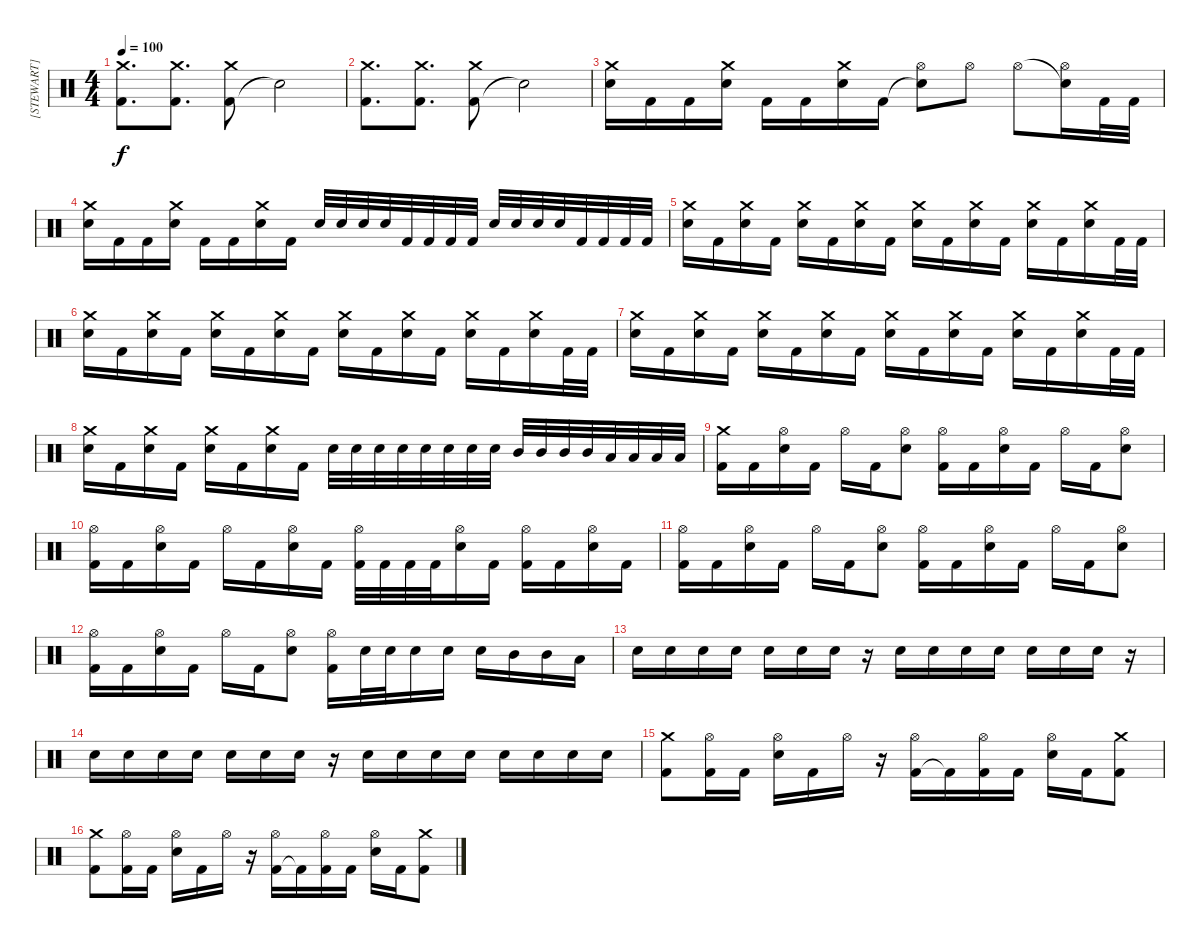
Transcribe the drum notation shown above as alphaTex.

\track ("[STEWART]" "[STEWART]") {instrument percussion}
\staff {score}
\articulation defaults
\ts (4 4)
\tempo 100
\clef neutral
\ks c
("Kick (hit) 2" "Crash medium (hit)").8{d dy f} ("Kick (hit) 2" "Crash medium (hit)").8{d} ("Kick (hit) 2" "Crash medium (hit)").8 "Snare (hit)"{t}.2 |
("Kick (hit) 2" "Crash medium (hit)").8{d} ("Kick (hit) 2" "Crash medium (hit)").8{d} ("Kick (hit) 2" "Crash medium (hit)").8 "Snare (hit)"{t}.2 |
("Electric Snare (hit)" "Crash medium (hit)").16 "Kick (hit) 2".16 "Kick (hit) 2".16 ("Electric Snare (hit)" "Crash medium (hit)").16 "Kick (hit) 2".16 "Kick (hit) 2".16 ("Electric Snare (hit)" "Crash medium (hit)").16 "Kick (hit) 2".16 ("Snare (hit)"{t} "Hi-Hat (open)").8 "Hi-Hat (open)".8 "Hi-Hat (open)".8 ("Snare (hit)"{t} "Hi-Hat (open)").16 "Kick (hit) 2".32 "Kick (hit) 2".32 |
("Electric Snare (hit)" "Crash medium (hit)").16 "Kick (hit) 2".16 "Kick (hit) 2".16 ("Electric Snare (hit)" "Crash medium (hit)").16 "Kick (hit) 2".16 "Kick (hit) 2".16 ("Electric Snare (hit)" "Crash medium (hit)").16 "Kick (hit) 2".16 "Electric Snare (hit)".32 "Electric Snare (hit)".32 "Electric Snare (hit)".32 "Electric Snare (hit)".32 "Kick (hit) 2".32 "Kick (hit) 2".32 "Kick (hit) 2".32 "Kick (hit) 2".32 "Electric Snare (hit)".32 "Electric Snare (hit)".32 "Electric Snare (hit)".32 "Electric Snare (hit)".32 "Kick (hit) 2".32 "Kick (hit) 2".32 "Kick (hit) 2".32 "Kick (hit) 2".32 |
("Electric Snare (hit)" "Crash medium (hit)").16 "Kick (hit) 2".16 ("Electric Snare (hit)" "Crash medium (hit)").16 "Kick (hit) 2".16 ("Electric Snare (hit)" "Crash medium (hit)").16 "Kick (hit) 2".16 ("Electric Snare (hit)" "Crash medium (hit)").16 "Kick (hit) 2".16 ("Electric Snare (hit)" "Crash medium (hit)").16 "Kick (hit) 2".16 ("Electric Snare (hit)" "Crash medium (hit)").16 "Kick (hit) 2".16 ("Electric Snare (hit)" "Crash medium (hit)").16 "Kick (hit) 2".16 ("Electric Snare (hit)" "Crash medium (hit)").16 "Kick (hit) 2".32 "Kick (hit) 2".32 |
("Electric Snare (hit)" "Crash medium (hit)").16 "Kick (hit) 2".16 ("Electric Snare (hit)" "Crash medium (hit)").16 "Kick (hit) 2".16 ("Electric Snare (hit)" "Crash medium (hit)").16 "Kick (hit) 2".16 ("Electric Snare (hit)" "Crash medium (hit)").16 "Kick (hit) 2".16 ("Electric Snare (hit)" "Crash medium (hit)").16 "Kick (hit) 2".16 ("Electric Snare (hit)" "Crash medium (hit)").16 "Kick (hit) 2".16 ("Electric Snare (hit)" "Crash medium (hit)").16 "Kick (hit) 2".16 ("Electric Snare (hit)" "Crash medium (hit)").16 "Kick (hit) 2".32 "Kick (hit) 2".32 |
("Electric Snare (hit)" "Crash medium (hit)").16 "Kick (hit) 2".16 ("Electric Snare (hit)" "Crash medium (hit)").16 "Kick (hit) 2".16 ("Electric Snare (hit)" "Crash medium (hit)").16 "Kick (hit) 2".16 ("Electric Snare (hit)" "Crash medium (hit)").16 "Kick (hit) 2".16 ("Electric Snare (hit)" "Crash medium (hit)").16 "Kick (hit) 2".16 ("Electric Snare (hit)" "Crash medium (hit)").16 "Kick (hit) 2".16 ("Electric Snare (hit)" "Crash medium (hit)").16 "Kick (hit) 2".16 ("Electric Snare (hit)" "Crash medium (hit)").16 "Kick (hit) 2".32 "Kick (hit) 2".32 |
("Electric Snare (hit)" "Crash medium (hit)").16 "Kick (hit) 2".16 ("Electric Snare (hit)" "Crash medium (hit)").16 "Kick (hit) 2".16 ("Electric Snare (hit)" "Crash medium (hit)").16 "Kick (hit) 2".16 ("Electric Snare (hit)" "Crash medium (hit)").16 "Kick (hit) 2".16 "Electric Snare (hit)".32 "Electric Snare (hit)".32 "Electric Snare (hit)".32 "Electric Snare (hit)".32 "Electric Snare (hit)".32 "Electric Snare (hit)".32 "Electric Snare (hit)".32 "Electric Snare (hit)".32 "Mid Tom (hit)".32 "Mid Tom (hit)".32 "Mid Tom (hit)".32 "Mid Tom (hit)".32 "Low Tom (hit)".32 "Low Tom (hit)".32 "Low Tom (hit)".32 "Low Tom (hit)".32 |
("Kick (hit) 2" "Crash medium (hit)").16 "Kick (hit) 2".16 ("Electric Snare (hit)" "Hi-Hat (open)").16 "Kick (hit) 2".16 "Hi-Hat (open)".16 "Kick (hit) 2".16 ("Electric Snare (hit)" "Hi-Hat (open)").8 ("Kick (hit) 2" "Hi-Hat (open)").16 "Kick (hit) 2".16 ("Electric Snare (hit)" "Hi-Hat (open)").16 "Kick (hit) 2".16 "Hi-Hat (open)".16 "Kick (hit) 2".16 ("Electric Snare (hit)" "Hi-Hat (open)").8 |
("Kick (hit) 2" "Hi-Hat (open)").16 "Kick (hit) 2".16 ("Electric Snare (hit)" "Hi-Hat (open)").16 "Kick (hit) 2".16 "Hi-Hat (open)".16 "Kick (hit) 2".16 ("Electric Snare (hit)" "Hi-Hat (open)").16 "Kick (hit) 2".16 ("Kick (hit) 2" "Hi-Hat (open)").32 "Kick (hit) 2".32 "Kick (hit) 2".32 "Kick (hit) 2".32 ("Electric Snare (hit)" "Hi-Hat (open)").16 "Kick (hit) 2".16 ("Kick (hit) 2" "Hi-Hat (open)").16 "Kick (hit) 2".16 ("Electric Snare (hit)" "Hi-Hat (open)").16 "Kick (hit) 2".16 |
("Kick (hit) 2" "Hi-Hat (open)").16 "Kick (hit) 2".16 ("Electric Snare (hit)" "Hi-Hat (open)").16 "Kick (hit) 2".16 "Hi-Hat (open)".16 "Kick (hit) 2".16 ("Electric Snare (hit)" "Hi-Hat (open)").8 ("Kick (hit) 2" "Hi-Hat (open)").16 "Kick (hit) 2".16 ("Electric Snare (hit)" "Hi-Hat (open)").16 "Kick (hit) 2".16 "Hi-Hat (open)".16 "Kick (hit) 2".16 ("Electric Snare (hit)" "Hi-Hat (open)").8 |
("Kick (hit) 2" "Hi-Hat (open)").16 "Kick (hit) 2".16 ("Electric Snare (hit)" "Hi-Hat (open)").16 "Kick (hit) 2".16 "Hi-Hat (open)".16 "Kick (hit) 2".16 ("Electric Snare (hit)" "Hi-Hat (open)").8 ("Kick (hit) 2" "Hi-Hat (open)").16 "Electric Snare (hit)".32 "Electric Snare (hit)".32 "Electric Snare (hit)".16 "Electric Snare (hit)".16 "Electric Snare (hit)".16 "Mid Tom (hit)".16 "Mid Tom (hit)".16 "Low Tom (hit)".16 |
"Electric Snare (hit)".16 "Electric Snare (hit)".16 "Electric Snare (hit)".16 "Electric Snare (hit)".16 "Electric Snare (hit)".16 "Electric Snare (hit)".16 "Electric Snare (hit)".16 r.16 "Electric Snare (hit)".16 "Electric Snare (hit)".16 "Electric Snare (hit)".16 "Electric Snare (hit)".16 "Electric Snare (hit)".16 "Electric Snare (hit)".16 "Electric Snare (hit)".16 r.16 |
"Electric Snare (hit)".16 "Electric Snare (hit)".16 "Electric Snare (hit)".16 "Electric Snare (hit)".16 "Electric Snare (hit)".16 "Electric Snare (hit)".16 "Electric Snare (hit)".16 r.16 "Electric Snare (hit)".16 "Electric Snare (hit)".16 "Electric Snare (hit)".16 "Electric Snare (hit)".16 "Electric Snare (hit)".16 "Electric Snare (hit)".16 "Electric Snare (hit)".16 "Electric Snare (hit)".16 |
("Kick (hit) 2" "Crash medium (hit)").8 ("Kick (hit) 2" "Hi-Hat (open)").16 "Kick (hit) 2".16 ("Electric Snare (hit)" "Hi-Hat (open)").16 "Kick (hit) 2".16 "Hi-Hat (open)".16 r.16 ("Kick (hit) 2" "Hi-Hat (open)").16 "Kick (hit) 2"{t}.16 ("Kick (hit) 2" "Hi-Hat (open)").16 "Kick (hit) 2".16 ("Electric Snare (hit)" "Hi-Hat (open)").16 "Kick (hit) 2".16 ("Kick (hit) 2" "Crash medium (hit)").8 |
("Kick (hit) 2" "Crash medium (hit)").8 ("Kick (hit) 2" "Hi-Hat (open)").16 "Kick (hit) 2".16 ("Electric Snare (hit)" "Hi-Hat (open)").16 "Kick (hit) 2".16 "Hi-Hat (open)".16 r.16 ("Kick (hit) 2" "Hi-Hat (open)").16 "Kick (hit) 2"{t}.16 ("Kick (hit) 2" "Hi-Hat (open)").16 "Kick (hit) 2".16 ("Electric Snare (hit)" "Hi-Hat (open)").16 "Kick (hit) 2".16 ("Kick (hit) 2" "Crash medium (hit)").8
